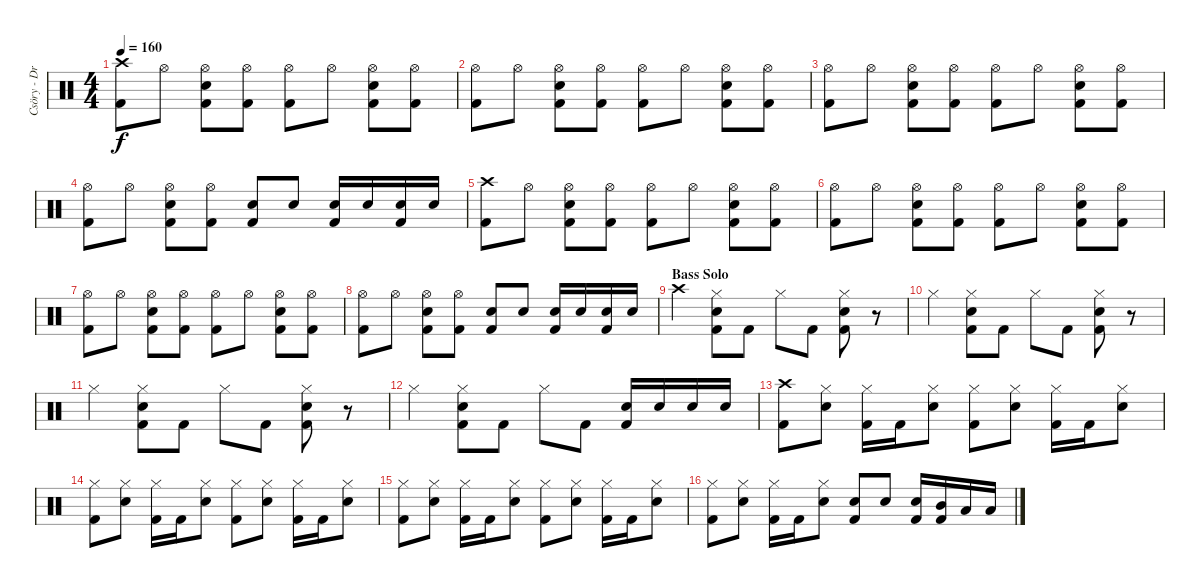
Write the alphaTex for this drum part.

\track ("Csöry - DrumZ" "Csöry - Dr") {instrument percussion}
\staff {score}
\articulation defaults
\ts (4 4)
\tempo 160
\clef neutral
\ks c
("Crash high (hit)" "Kick (hit) 2").8{dy f} "Hi-Hat (open)".8 ("Hi-Hat (open)" "Snare (hit) 2" "Kick (hit) 2").8 ("Hi-Hat (open)" "Kick (hit) 2").8 ("Hi-Hat (open)" "Kick (hit) 2").8 "Hi-Hat (open)".8 ("Hi-Hat (open)" "Snare (hit) 2" "Kick (hit) 2").8 ("Hi-Hat (open)" "Kick (hit) 2").8 |
("Hi-Hat (open)" "Kick (hit) 2").8 "Hi-Hat (open)".8 ("Hi-Hat (open)" "Snare (hit) 2" "Kick (hit) 2").8 ("Hi-Hat (open)" "Kick (hit) 2").8 ("Hi-Hat (open)" "Kick (hit) 2").8 "Hi-Hat (open)".8 ("Hi-Hat (open)" "Snare (hit) 2" "Kick (hit) 2").8 ("Hi-Hat (open)" "Kick (hit) 2").8 |
("Hi-Hat (open)" "Kick (hit) 2").8 "Hi-Hat (open)".8 ("Hi-Hat (open)" "Snare (hit) 2" "Kick (hit) 2").8 ("Hi-Hat (open)" "Kick (hit) 2").8 ("Hi-Hat (open)" "Kick (hit) 2").8 "Hi-Hat (open)".8 ("Hi-Hat (open)" "Snare (hit) 2" "Kick (hit) 2").8 ("Hi-Hat (open)" "Kick (hit) 2").8 |
("Hi-Hat (open)" "Kick (hit) 2").8 "Hi-Hat (open)".8 ("Hi-Hat (open)" "Snare (hit) 2" "Kick (hit) 2").8 ("Hi-Hat (open)" "Kick (hit) 2").8 ("Snare (hit) 2" "Kick (hit) 2").8 "Snare (hit) 2".8 ("Snare (hit) 2" "Kick (hit) 2").16 "Snare (hit) 2".16 ("Snare (hit) 2" "Kick (hit) 2").16 "Snare (hit) 2".16 |
("Crash high (hit)" "Kick (hit) 2").8 "Hi-Hat (open)".8 ("Hi-Hat (open)" "Snare (hit) 2" "Kick (hit) 2").8 ("Hi-Hat (open)" "Kick (hit) 2").8 ("Hi-Hat (open)" "Kick (hit) 2").8 "Hi-Hat (open)".8 ("Hi-Hat (open)" "Snare (hit) 2" "Kick (hit) 2").8 ("Hi-Hat (open)" "Kick (hit) 2").8 |
("Hi-Hat (open)" "Kick (hit) 2").8 "Hi-Hat (open)".8 ("Hi-Hat (open)" "Snare (hit) 2" "Kick (hit) 2").8 ("Hi-Hat (open)" "Kick (hit) 2").8 ("Hi-Hat (open)" "Kick (hit) 2").8 "Hi-Hat (open)".8 ("Hi-Hat (open)" "Snare (hit) 2" "Kick (hit) 2").8 ("Hi-Hat (open)" "Kick (hit) 2").8 |
("Hi-Hat (open)" "Kick (hit) 2").8 "Hi-Hat (open)".8 ("Hi-Hat (open)" "Snare (hit) 2" "Kick (hit) 2").8 ("Hi-Hat (open)" "Kick (hit) 2").8 ("Hi-Hat (open)" "Kick (hit) 2").8 "Hi-Hat (open)".8 ("Hi-Hat (open)" "Snare (hit) 2" "Kick (hit) 2").8 ("Hi-Hat (open)" "Kick (hit) 2").8 |
("Hi-Hat (open)" "Kick (hit) 2").8 "Hi-Hat (open)".8 ("Hi-Hat (open)" "Snare (hit) 2" "Kick (hit) 2").8 ("Hi-Hat (open)" "Kick (hit) 2").8 ("Snare (hit) 2" "Kick (hit) 2").8 "Snare (hit) 2".8 ("Snare (hit) 2" "Kick (hit) 2").16 "Snare (hit) 2".16 ("Snare (hit) 2" "Kick (hit) 2").16 "Snare (hit) 2".16 |
\section ("" "Bass Solo")
"Crash high (hit)".4 ("Hi-Hat (closed)" "Snare (hit) 2" "Kick (hit) 2").8 "Kick (hit) 2".8 "Hi-Hat (closed)".8 "Kick (hit) 2".8 ("Hi-Hat (closed)" "Snare (hit) 2" "Kick (hit) 2").8 r.8 |
"Hi-Hat (closed)".4 ("Hi-Hat (closed)" "Snare (hit) 2" "Kick (hit) 2").8 "Kick (hit) 2".8 "Hi-Hat (closed)".8 "Kick (hit) 2".8 ("Hi-Hat (closed)" "Snare (hit) 2" "Kick (hit) 2").8 r.8 |
"Hi-Hat (closed)".4 ("Hi-Hat (closed)" "Snare (hit) 2" "Kick (hit) 2").8 "Kick (hit) 2".8 "Hi-Hat (closed)".8 "Kick (hit) 2".8 ("Hi-Hat (closed)" "Snare (hit) 2" "Kick (hit) 2").8 r.8 |
"Hi-Hat (closed)".4 ("Hi-Hat (closed)" "Snare (hit) 2" "Kick (hit) 2").8 "Kick (hit) 2".8 "Hi-Hat (closed)".8 "Kick (hit) 2".8 ("Snare (hit) 2" "Kick (hit) 2").16 "Snare (hit) 2".16 "Snare (hit) 2".16 "Snare (hit) 2".16 |
("Crash high (hit)" "Kick (hit) 2").8 ("Hi-Hat (closed)" "Snare (hit) 2").8 ("Hi-Hat (closed)" "Kick (hit) 2").16 "Kick (hit) 2".16 ("Hi-Hat (closed)" "Snare (hit) 2").8 ("Hi-Hat (closed)" "Kick (hit) 2").8 ("Hi-Hat (closed)" "Snare (hit) 2").8 ("Hi-Hat (closed)" "Kick (hit) 2").16 "Kick (hit) 2".16 ("Hi-Hat (closed)" "Snare (hit) 2").8 |
("Hi-Hat (closed)" "Kick (hit) 2").8 ("Hi-Hat (closed)" "Snare (hit) 2").8 ("Hi-Hat (closed)" "Kick (hit) 2").16 "Kick (hit) 2".16 ("Hi-Hat (closed)" "Snare (hit) 2").8 ("Hi-Hat (closed)" "Kick (hit) 2").8 ("Hi-Hat (closed)" "Snare (hit) 2").8 ("Hi-Hat (closed)" "Kick (hit) 2").16 "Kick (hit) 2".16 ("Hi-Hat (closed)" "Snare (hit) 2").8 |
("Hi-Hat (closed)" "Kick (hit) 2").8 ("Hi-Hat (closed)" "Snare (hit) 2").8 ("Hi-Hat (closed)" "Kick (hit) 2").16 "Kick (hit) 2".16 ("Hi-Hat (closed)" "Snare (hit) 2").8 ("Hi-Hat (closed)" "Kick (hit) 2").8 ("Hi-Hat (closed)" "Snare (hit) 2").8 ("Hi-Hat (closed)" "Kick (hit) 2").16 "Kick (hit) 2".16 ("Hi-Hat (closed)" "Snare (hit) 2").8 |
("Hi-Hat (closed)" "Kick (hit) 2").8 ("Hi-Hat (closed)" "Snare (hit) 2").8 ("Hi-Hat (closed)" "Kick (hit) 2").16 "Kick (hit) 2".16 ("Hi-Hat (closed)" "Snare (hit) 2").8 ("Snare (hit) 2" "Kick (hit) 2").8 "Snare (hit) 2".8 ("Snare (hit) 2" "Kick (hit) 2").16 ("Mid Tom (hit)" "Kick (hit) 2").16 "Low Tom (hit)".16 "Low Floor Tom (hit)".16
